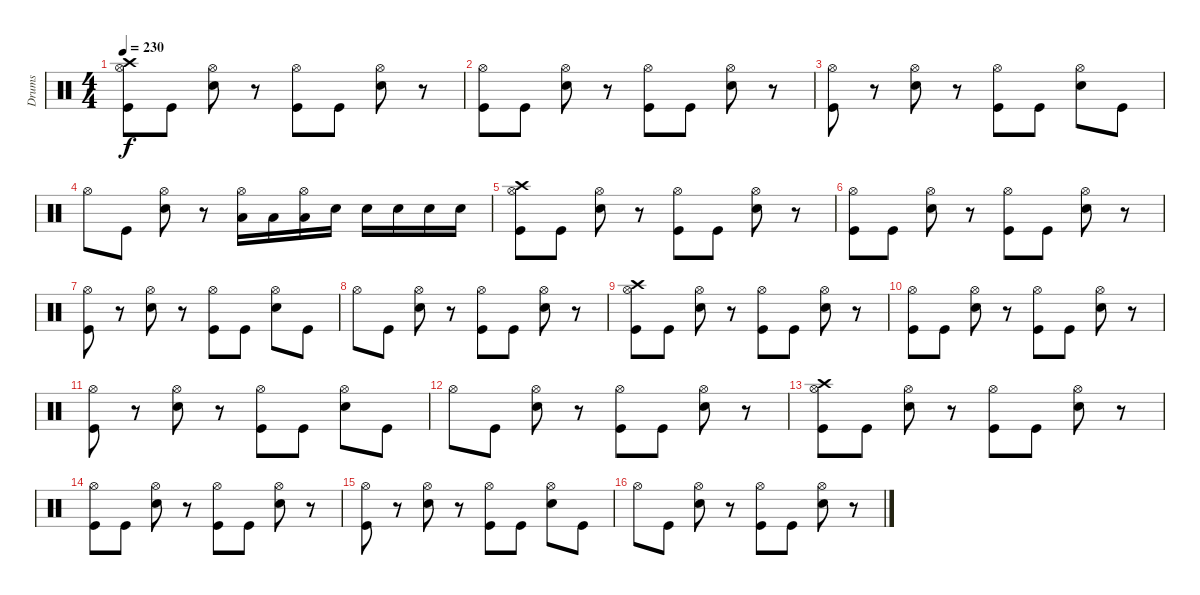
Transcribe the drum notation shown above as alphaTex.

\track ("Drums" "Drums") {instrument percussion}
\staff {score}
\articulation defaults
\ts (4 4)
\tempo 230
\clef neutral
\ks c
("Crash high (hit)" "Kick (hit)" "Hi-Hat (open)").8{dy f} "Kick (hit)".8 ("Electric Snare (hit)" "Hi-Hat (open)").8 r.8 ("Kick (hit)" "Hi-Hat (open)").8 "Kick (hit)".8 ("Electric Snare (hit)" "Hi-Hat (open)").8 r.8 |
("Kick (hit)" "Hi-Hat (open)").8 "Kick (hit)".8 ("Electric Snare (hit)" "Hi-Hat (open)").8 r.8 ("Kick (hit)" "Hi-Hat (open)").8 "Kick (hit)".8 ("Electric Snare (hit)" "Hi-Hat (open)").8 r.8 |
("Kick (hit)" "Hi-Hat (open)").8 r.8 ("Electric Snare (hit)" "Hi-Hat (open)").8 r.8 ("Kick (hit)" "Hi-Hat (open)").8 "Kick (hit)".8 ("Electric Snare (hit)" "Hi-Hat (open)").8 "Kick (hit)".8 |
"Hi-Hat (open)".8 "Kick (hit)".8 ("Electric Snare (hit)" "Hi-Hat (open)").8 r.8 ("Low Tom (hit)" "Hi-Hat (open)").16 "Low Tom (hit)".16 ("Low Tom (hit)" "Hi-Hat (open)").16 "Electric Snare (hit)".16 "Electric Snare (hit)".16 "Electric Snare (hit)".16 "Electric Snare (hit)".16 "Electric Snare (hit)".16 |
("Crash high (hit)" "Kick (hit)" "Hi-Hat (open)").8 "Kick (hit)".8 ("Electric Snare (hit)" "Hi-Hat (open)").8 r.8 ("Kick (hit)" "Hi-Hat (open)").8 "Kick (hit)".8 ("Electric Snare (hit)" "Hi-Hat (open)").8 r.8 |
("Kick (hit)" "Hi-Hat (open)").8 "Kick (hit)".8 ("Electric Snare (hit)" "Hi-Hat (open)").8 r.8 ("Kick (hit)" "Hi-Hat (open)").8 "Kick (hit)".8 ("Electric Snare (hit)" "Hi-Hat (open)").8 r.8 |
("Kick (hit)" "Hi-Hat (open)").8 r.8 ("Electric Snare (hit)" "Hi-Hat (open)").8 r.8 ("Kick (hit)" "Hi-Hat (open)").8 "Kick (hit)".8 ("Electric Snare (hit)" "Hi-Hat (open)").8 "Kick (hit)".8 |
"Hi-Hat (open)".8 "Kick (hit)".8 ("Electric Snare (hit)" "Hi-Hat (open)").8 r.8 ("Kick (hit)" "Hi-Hat (open)").8 "Kick (hit)".8 ("Electric Snare (hit)" "Hi-Hat (open)").8 r.8 |
("Crash high (hit)" "Kick (hit)" "Hi-Hat (open)").8 "Kick (hit)".8 ("Electric Snare (hit)" "Hi-Hat (open)").8 r.8 ("Kick (hit)" "Hi-Hat (open)").8 "Kick (hit)".8 ("Electric Snare (hit)" "Hi-Hat (open)").8 r.8 |
("Kick (hit)" "Hi-Hat (open)").8 "Kick (hit)".8 ("Electric Snare (hit)" "Hi-Hat (open)").8 r.8 ("Kick (hit)" "Hi-Hat (open)").8 "Kick (hit)".8 ("Electric Snare (hit)" "Hi-Hat (open)").8 r.8 |
("Kick (hit)" "Hi-Hat (open)").8 r.8 ("Electric Snare (hit)" "Hi-Hat (open)").8 r.8 ("Kick (hit)" "Hi-Hat (open)").8 "Kick (hit)".8 ("Electric Snare (hit)" "Hi-Hat (open)").8 "Kick (hit)".8 |
"Hi-Hat (open)".8 "Kick (hit)".8 ("Electric Snare (hit)" "Hi-Hat (open)").8 r.8 ("Kick (hit)" "Hi-Hat (open)").8 "Kick (hit)".8 ("Electric Snare (hit)" "Hi-Hat (open)").8 r.8 |
("Crash high (hit)" "Kick (hit)" "Hi-Hat (open)").8 "Kick (hit)".8 ("Electric Snare (hit)" "Hi-Hat (open)").8 r.8 ("Kick (hit)" "Hi-Hat (open)").8 "Kick (hit)".8 ("Electric Snare (hit)" "Hi-Hat (open)").8 r.8 |
("Kick (hit)" "Hi-Hat (open)").8 "Kick (hit)".8 ("Electric Snare (hit)" "Hi-Hat (open)").8 r.8 ("Kick (hit)" "Hi-Hat (open)").8 "Kick (hit)".8 ("Electric Snare (hit)" "Hi-Hat (open)").8 r.8 |
("Kick (hit)" "Hi-Hat (open)").8 r.8 ("Electric Snare (hit)" "Hi-Hat (open)").8 r.8 ("Kick (hit)" "Hi-Hat (open)").8 "Kick (hit)".8 ("Electric Snare (hit)" "Hi-Hat (open)").8 "Kick (hit)".8 |
"Hi-Hat (open)".8 "Kick (hit)".8 ("Electric Snare (hit)" "Hi-Hat (open)").8 r.8 ("Kick (hit)" "Hi-Hat (open)").8 "Kick (hit)".8 ("Electric Snare (hit)" "Hi-Hat (open)").8 r.8
